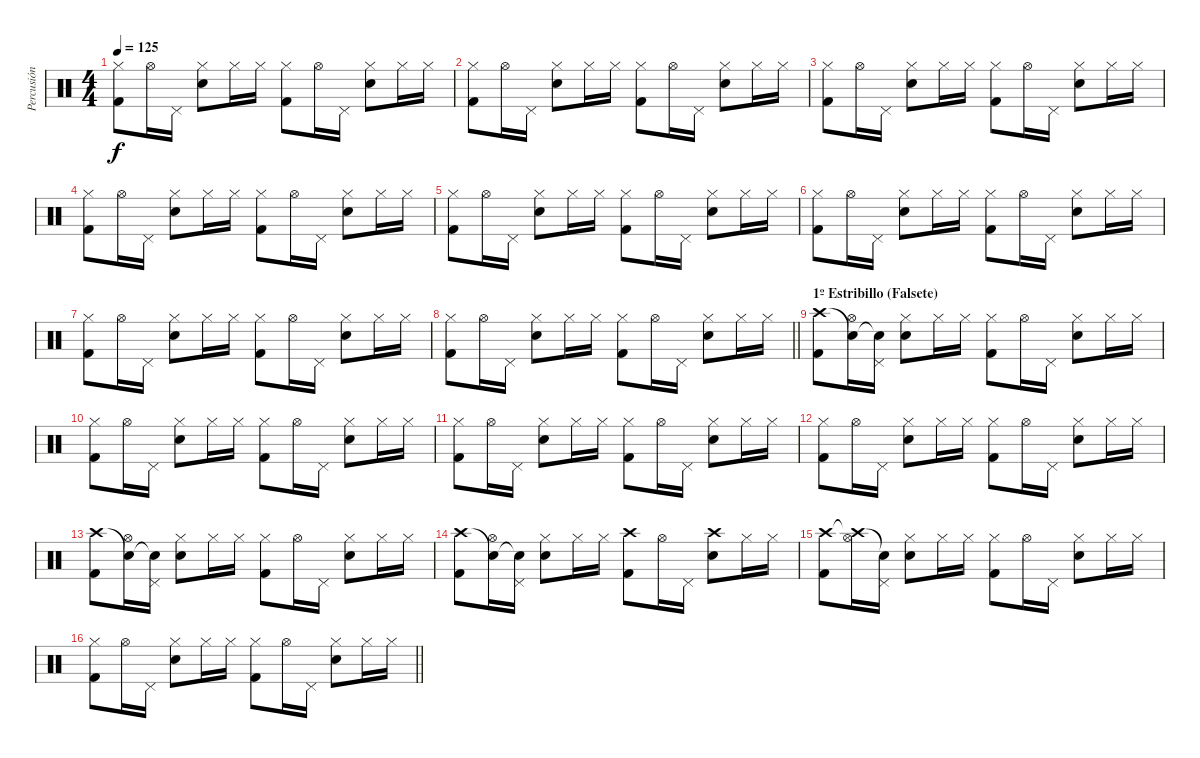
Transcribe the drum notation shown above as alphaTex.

\track ("Percusión" "Percusión") {instrument percussion}
\staff {score}
\articulation defaults
\ts (4 4)
\tempo 125
\clef neutral
\ks c
("Hi-Hat (closed)" "Kick (hit) 2").8{dy f} "Hi-Hat (open)".16 "Pedal Hi-Hat (hit)".16 ("Hi-Hat (closed)" "Snare (hit) 2").8 "Hi-Hat (closed)".16 "Hi-Hat (closed)".16 ("Hi-Hat (closed)" "Kick (hit) 2").8 "Hi-Hat (open)".16 "Pedal Hi-Hat (hit)".16 ("Hi-Hat (closed)" "Snare (hit) 2").8 "Hi-Hat (closed)".16 "Hi-Hat (closed)".16 |
("Hi-Hat (closed)" "Kick (hit) 2").8 "Hi-Hat (open)".16 "Pedal Hi-Hat (hit)".16 ("Hi-Hat (closed)" "Snare (hit) 2").8 "Hi-Hat (closed)".16 "Hi-Hat (closed)".16 ("Hi-Hat (closed)" "Kick (hit) 2").8 "Hi-Hat (open)".16 "Pedal Hi-Hat (hit)".16 ("Hi-Hat (closed)" "Snare (hit) 2").8 "Hi-Hat (closed)".16 "Hi-Hat (closed)".16 |
("Hi-Hat (closed)" "Kick (hit) 2").8 "Hi-Hat (open)".16 "Pedal Hi-Hat (hit)".16 ("Hi-Hat (closed)" "Snare (hit) 2").8 "Hi-Hat (closed)".16 "Hi-Hat (closed)".16 ("Hi-Hat (closed)" "Kick (hit) 2").8 "Hi-Hat (open)".16 "Pedal Hi-Hat (hit)".16 ("Hi-Hat (closed)" "Snare (hit) 2").8 "Hi-Hat (closed)".16 "Hi-Hat (closed)".16 |
("Hi-Hat (closed)" "Kick (hit) 2").8 "Hi-Hat (open)".16 "Pedal Hi-Hat (hit)".16 ("Hi-Hat (closed)" "Snare (hit) 2").8 "Hi-Hat (closed)".16 "Hi-Hat (closed)".16 ("Hi-Hat (closed)" "Kick (hit) 2").8 "Hi-Hat (open)".16 "Pedal Hi-Hat (hit)".16 ("Hi-Hat (closed)" "Snare (hit) 2").8 "Hi-Hat (closed)".16 "Hi-Hat (closed)".16 |
("Hi-Hat (closed)" "Kick (hit) 2").8 "Hi-Hat (open)".16 "Pedal Hi-Hat (hit)".16 ("Hi-Hat (closed)" "Snare (hit) 2").8 "Hi-Hat (closed)".16 "Hi-Hat (closed)".16 ("Hi-Hat (closed)" "Kick (hit) 2").8 "Hi-Hat (open)".16 "Pedal Hi-Hat (hit)".16 ("Hi-Hat (closed)" "Snare (hit) 2").8 "Hi-Hat (closed)".16 "Hi-Hat (closed)".16 |
("Hi-Hat (closed)" "Kick (hit) 2").8 "Hi-Hat (open)".16 "Pedal Hi-Hat (hit)".16 ("Hi-Hat (closed)" "Snare (hit) 2").8 "Hi-Hat (closed)".16 "Hi-Hat (closed)".16 ("Hi-Hat (closed)" "Kick (hit) 2").8 "Hi-Hat (open)".16 "Pedal Hi-Hat (hit)".16 ("Hi-Hat (closed)" "Snare (hit) 2").8 "Hi-Hat (closed)".16 "Hi-Hat (closed)".16 |
("Hi-Hat (closed)" "Kick (hit) 2").8 "Hi-Hat (open)".16 "Pedal Hi-Hat (hit)".16 ("Hi-Hat (closed)" "Snare (hit) 2").8 "Hi-Hat (closed)".16 "Hi-Hat (closed)".16 ("Hi-Hat (closed)" "Kick (hit) 2").8 "Hi-Hat (open)".16 "Pedal Hi-Hat (hit)".16 ("Hi-Hat (closed)" "Snare (hit) 2").8 "Hi-Hat (closed)".16 "Hi-Hat (closed)".16 |
\barLineRight lightlight
("Hi-Hat (closed)" "Kick (hit) 2").8 "Hi-Hat (open)".16 "Pedal Hi-Hat (hit)".16 ("Hi-Hat (closed)" "Snare (hit) 2").8 "Hi-Hat (closed)".16 "Hi-Hat (closed)".16 ("Hi-Hat (closed)" "Kick (hit) 2").8 "Hi-Hat (open)".16 "Pedal Hi-Hat (hit)".16 ("Hi-Hat (closed)" "Snare (hit) 2").8 "Hi-Hat (closed)".16 "Hi-Hat (closed)".16 |
\section ("" "1º Estribillo (Falsete)")
("Crash high (hit)" "Kick (hit) 2").8 ("Snare (hit)"{t} "Hi-Hat (open)").16 ("Snare (hit)"{t} "Pedal Hi-Hat (hit)").16 ("Hi-Hat (closed)" "Snare (hit) 2").8 "Hi-Hat (closed)".16 "Hi-Hat (closed)".16 ("Hi-Hat (closed)" "Kick (hit) 2").8 "Hi-Hat (open)".16 "Pedal Hi-Hat (hit)".16 ("Hi-Hat (closed)" "Snare (hit) 2").8 "Hi-Hat (closed)".16 "Hi-Hat (closed)".16 |
("Hi-Hat (closed)" "Kick (hit) 2").8 "Hi-Hat (open)".16 "Pedal Hi-Hat (hit)".16 ("Hi-Hat (closed)" "Snare (hit) 2").8 "Hi-Hat (closed)".16 "Hi-Hat (closed)".16 ("Hi-Hat (closed)" "Kick (hit) 2").8 "Hi-Hat (open)".16 "Pedal Hi-Hat (hit)".16 ("Hi-Hat (closed)" "Snare (hit) 2").8 "Hi-Hat (closed)".16 "Hi-Hat (closed)".16 |
("Hi-Hat (closed)" "Kick (hit) 2").8 "Hi-Hat (open)".16 "Pedal Hi-Hat (hit)".16 ("Hi-Hat (closed)" "Snare (hit) 2").8 "Hi-Hat (closed)".16 "Hi-Hat (closed)".16 ("Hi-Hat (closed)" "Kick (hit) 2").8 "Hi-Hat (open)".16 "Pedal Hi-Hat (hit)".16 ("Hi-Hat (closed)" "Snare (hit) 2").8 "Hi-Hat (closed)".16 "Hi-Hat (closed)".16 |
("Hi-Hat (closed)" "Kick (hit) 2").8 "Hi-Hat (open)".16 "Pedal Hi-Hat (hit)".16 ("Hi-Hat (closed)" "Snare (hit) 2").8 "Hi-Hat (closed)".16 "Hi-Hat (closed)".16 ("Hi-Hat (closed)" "Kick (hit) 2").8 "Hi-Hat (open)".16 "Pedal Hi-Hat (hit)".16 ("Hi-Hat (closed)" "Snare (hit) 2").8 "Hi-Hat (closed)".16 "Hi-Hat (closed)".16 |
("Crash high (hit)" "Kick (hit) 2").8 ("Snare (hit)"{t} "Hi-Hat (open)").16 ("Snare (hit)"{t} "Pedal Hi-Hat (hit)").16 ("Hi-Hat (closed)" "Snare (hit) 2").8 "Hi-Hat (closed)".16 "Hi-Hat (closed)".16 ("Hi-Hat (closed)" "Kick (hit) 2").8 "Hi-Hat (open)".16 "Pedal Hi-Hat (hit)".16 ("Hi-Hat (closed)" "Snare (hit) 2").8 "Hi-Hat (closed)".16 "Hi-Hat (closed)".16 |
("Crash high (hit)" "Kick (hit) 2").8 ("Snare (hit)"{t} "Hi-Hat (open)").16 ("Snare (hit)"{t} "Pedal Hi-Hat (hit)").16 ("Hi-Hat (closed)" "Snare (hit) 2").8 "Hi-Hat (closed)".16 "Hi-Hat (closed)".16 ("Crash high (hit)" "Kick (hit) 2").8 "Hi-Hat (open)".16 "Pedal Hi-Hat (hit)".16 ("Crash high (hit)" "Snare (hit) 2").8 "Hi-Hat (closed)".16 "Hi-Hat (closed)".16 |
("Crash high (hit)" "Kick (hit) 2").8 ("Crash high (hit)"{t} "Hi-Hat (open)").16 ("Snare (hit)"{t} "Pedal Hi-Hat (hit)").16 ("Hi-Hat (closed)" "Snare (hit) 2").8 "Hi-Hat (closed)".16 "Hi-Hat (closed)".16 ("Hi-Hat (closed)" "Kick (hit) 2").8 "Hi-Hat (open)".16 "Pedal Hi-Hat (hit)".16 ("Hi-Hat (closed)" "Snare (hit) 2").8 "Hi-Hat (closed)".16 "Hi-Hat (closed)".16 |
\barLineRight lightlight
("Hi-Hat (closed)" "Kick (hit) 2").8 "Hi-Hat (open)".16 "Pedal Hi-Hat (hit)".16 ("Hi-Hat (closed)" "Snare (hit) 2").8 "Hi-Hat (closed)".16 "Hi-Hat (closed)".16 ("Hi-Hat (closed)" "Kick (hit) 2").8 "Hi-Hat (open)".16 "Pedal Hi-Hat (hit)".16 ("Hi-Hat (closed)" "Snare (hit) 2").8 "Hi-Hat (closed)".16 "Hi-Hat (closed)".16
